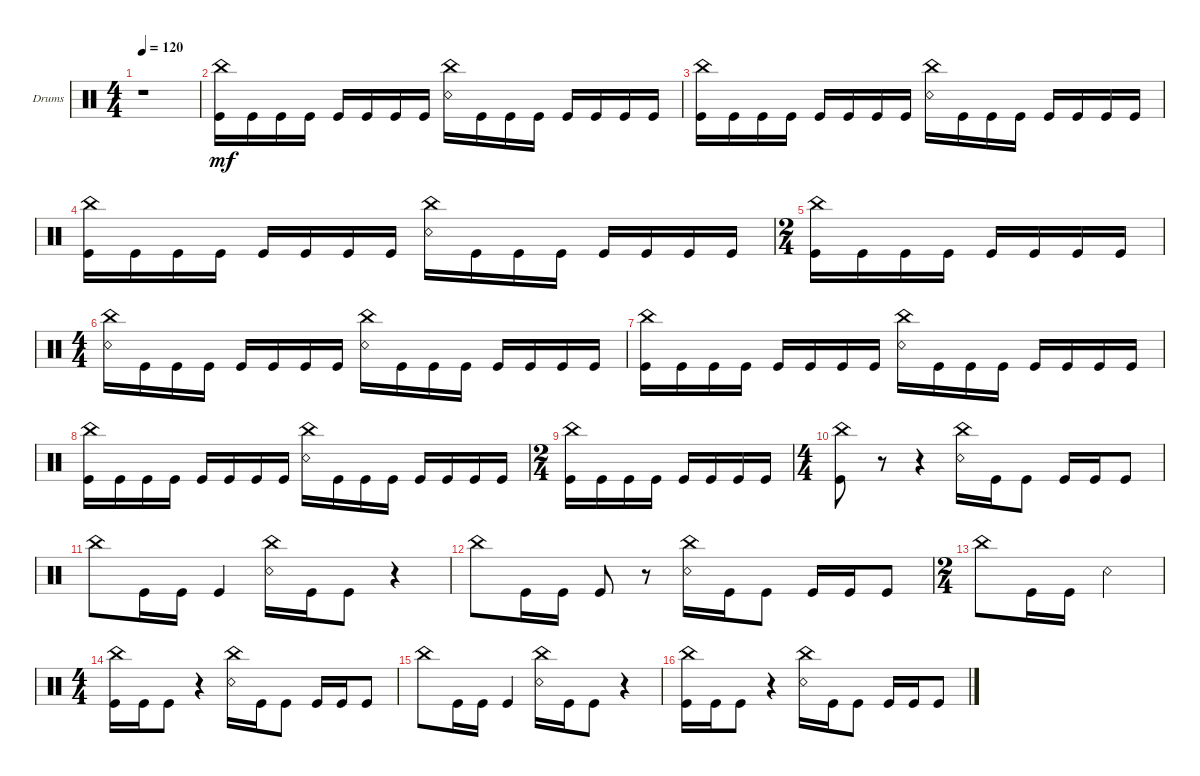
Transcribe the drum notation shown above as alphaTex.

\defaultSystemsLayout 4
\bracketExtendMode groupsimilarinstruments
\firstSystemTrackNameOrientation horizontal
\otherSystemsTrackNameOrientation horizontal
\track ("Drumkit" "Drums") {instrument percussion}
\staff {score}
\articulation defaults
\ts (4 4)
\tempo 120
\clef neutral
\ks c
r.1{dy mf} |
("Kick (hit)" "China (hit)").16 "Kick (hit)".16 "Kick (hit)".16 "Kick (hit)".16 "Kick (hit)".16 "Kick (hit)".16 "Kick (hit)".16 "Kick (hit)".16 ("China (hit)" "Snare (rim shot)").16 "Kick (hit)".16 "Kick (hit)".16 "Kick (hit)".16 "Kick (hit)".16 "Kick (hit)".16 "Kick (hit)".16 "Kick (hit)".16 |
("Kick (hit)" "China (hit)").16 "Kick (hit)".16 "Kick (hit)".16 "Kick (hit)".16 "Kick (hit)".16 "Kick (hit)".16 "Kick (hit)".16 "Kick (hit)".16 ("China (hit)" "Snare (rim shot)").16 "Kick (hit)".16 "Kick (hit)".16 "Kick (hit)".16 "Kick (hit)".16 "Kick (hit)".16 "Kick (hit)".16 "Kick (hit)".16 |
("Kick (hit)" "China (hit)").16 "Kick (hit)".16 "Kick (hit)".16 "Kick (hit)".16 "Kick (hit)".16 "Kick (hit)".16 "Kick (hit)".16 "Kick (hit)".16 ("China (hit)" "Snare (rim shot)").16 "Kick (hit)".16 "Kick (hit)".16 "Kick (hit)".16 "Kick (hit)".16 "Kick (hit)".16 "Kick (hit)".16 "Kick (hit)".16 |
\ts (2 4)
("China (hit)" "Kick (hit)").16 "Kick (hit)".16 "Kick (hit)".16 "Kick (hit)".16 "Kick (hit)".16 "Kick (hit)".16 "Kick (hit)".16 "Kick (hit)".16 |
\ts (4 4)
("China (hit)" "Snare (rim shot)").16 "Kick (hit)".16 "Kick (hit)".16 "Kick (hit)".16 "Kick (hit)".16 "Kick (hit)".16 "Kick (hit)".16 "Kick (hit)".16 ("China (hit)" "Snare (rim shot)").16 "Kick (hit)".16 "Kick (hit)".16 "Kick (hit)".16 "Kick (hit)".16 "Kick (hit)".16 "Kick (hit)".16 "Kick (hit)".16 |
("Kick (hit)" "China (hit)").16 "Kick (hit)".16 "Kick (hit)".16 "Kick (hit)".16 "Kick (hit)".16 "Kick (hit)".16 "Kick (hit)".16 "Kick (hit)".16 ("China (hit)" "Snare (rim shot)").16 "Kick (hit)".16 "Kick (hit)".16 "Kick (hit)".16 "Kick (hit)".16 "Kick (hit)".16 "Kick (hit)".16 "Kick (hit)".16 |
("Kick (hit)" "China (hit)").16 "Kick (hit)".16 "Kick (hit)".16 "Kick (hit)".16 "Kick (hit)".16 "Kick (hit)".16 "Kick (hit)".16 "Kick (hit)".16 ("China (hit)" "Snare (rim shot)").16 "Kick (hit)".16 "Kick (hit)".16 "Kick (hit)".16 "Kick (hit)".16 "Kick (hit)".16 "Kick (hit)".16 "Kick (hit)".16 |
\ts (2 4)
("China (hit)" "Kick (hit)").16 "Kick (hit)".16 "Kick (hit)".16 "Kick (hit)".16 "Kick (hit)".16 "Kick (hit)".16 "Kick (hit)".16 "Kick (hit)".16 |
\ts (4 4)
("Kick (hit)" "China (hit)").8 r.8 r.4 ("China (hit)" "Snare (rim shot)").16 "Kick (hit)".16 "Kick (hit)".8 "Kick (hit)".16 "Kick (hit)".16 "Kick (hit)".8 |
"China (hit)".8 "Kick (hit)".16 "Kick (hit)".16 "Kick (hit)".4 ("China (hit)" "Snare (rim shot)").16 "Kick (hit)".16 "Kick (hit)".8 r.4 |
"China (hit)".8 "Kick (hit)".16 "Kick (hit)".16 "Kick (hit)".8 r.8 ("China (hit)" "Snare (rim shot)").16 "Kick (hit)".16 "Kick (hit)".8 "Kick (hit)".16 "Kick (hit)".16 "Kick (hit)".8 |
\ts (2 4)
"China (hit)".8 "Kick (hit)".16 "Kick (hit)".16 "Snare (rim shot)".4 |
\ts (4 4)
("Kick (hit)" "China (hit)").16 "Kick (hit)".16 "Kick (hit)".8 r.4 ("China (hit)" "Snare (rim shot)").16 "Kick (hit)".16 "Kick (hit)".8 "Kick (hit)".16 "Kick (hit)".16 "Kick (hit)".8 |
"China (hit)".8 "Kick (hit)".16 "Kick (hit)".16 "Kick (hit)".4 ("China (hit)" "Snare (rim shot)").16 "Kick (hit)".16 "Kick (hit)".8 r.4 |
("Kick (hit)" "China (hit)").16 "Kick (hit)".16 "Kick (hit)".8 r.4 ("China (hit)" "Snare (rim shot)").16 "Kick (hit)".16 "Kick (hit)".8 "Kick (hit)".16 "Kick (hit)".16 "Kick (hit)".8
